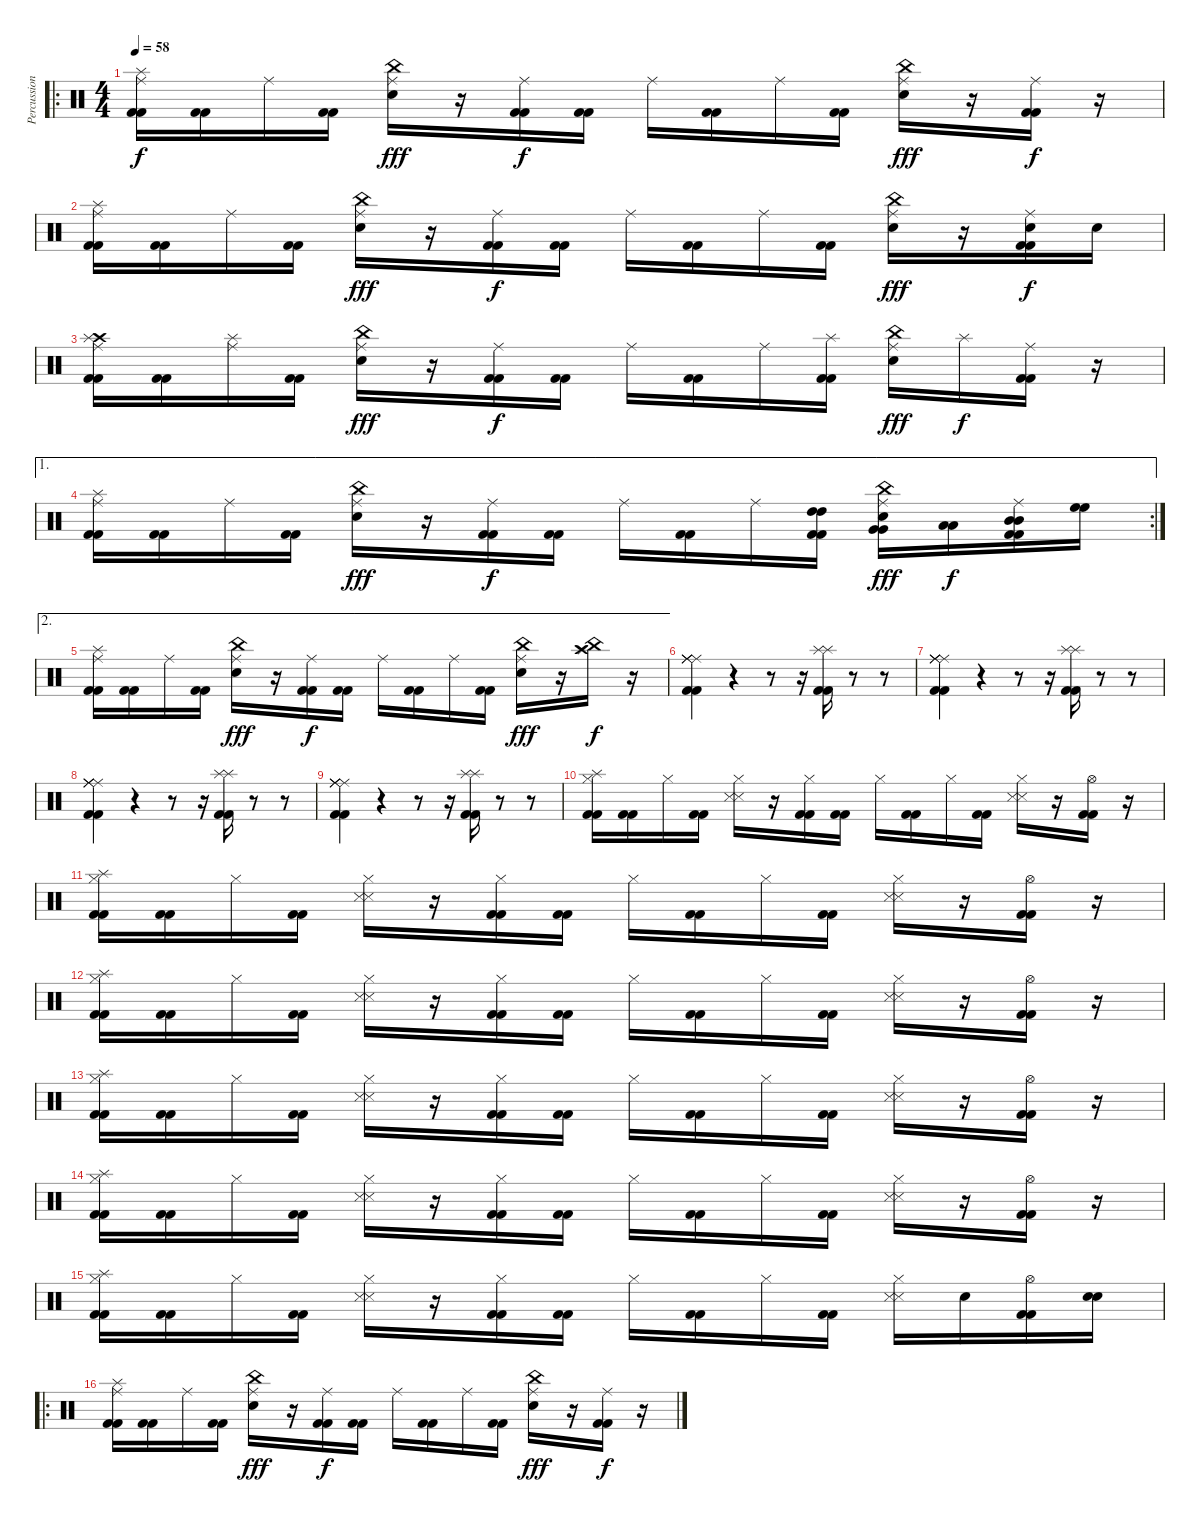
\track ("Percussion" "Percussion") {instrument percussion}
\staff {score}
\articulation defaults
\ro
\ts (4 4)
\tempo 58
\clef neutral
\ks c
("Ride (middle)" "Splash (hit)" "Kick (hit) 2" "Kick (hit) 2").16{dy f} ("Kick (hit) 2" "Kick (hit) 2").16 "Ride (middle)".16 ("Kick (hit) 2" "Kick (hit) 2").16 ("Ride (middle)" "China (hit)" "Snare (hit) 2").16{dy fff} r.16 ("Ride (middle)" "Kick (hit) 2" "Kick (hit) 2").16{dy f} ("Kick (hit) 2" "Kick (hit) 2").16 "Ride (middle)".16 ("Kick (hit) 2" "Kick (hit) 2").16 "Ride (middle)".16 ("Kick (hit) 2" "Kick (hit) 2").16 ("Ride (middle)" "China (hit)" "Snare (hit) 2").16{dy fff} r.16 ("Ride (middle)" "Kick (hit) 2" "Kick (hit) 2").16{dy f} r.16 |
("Ride (middle)" "Splash (hit)" "Kick (hit) 2" "Kick (hit) 2").16 ("Kick (hit) 2" "Kick (hit) 2").16 "Ride (middle)".16 ("Kick (hit) 2" "Kick (hit) 2").16 ("Ride (middle)" "China (hit)" "Snare (hit) 2").16{dy fff} r.16 ("Ride (middle)" "Kick (hit) 2" "Kick (hit) 2").16{dy f} ("Kick (hit) 2" "Kick (hit) 2").16 "Ride (middle)".16 ("Kick (hit) 2" "Kick (hit) 2").16 "Ride (middle)".16 ("Kick (hit) 2" "Kick (hit) 2").16 ("Ride (middle)" "China (hit)" "Snare (hit) 2").16{dy fff} r.16 ("Ride (middle)" "Snare (hit) 2" "Kick (hit) 2" "Kick (hit) 2").16{dy f} "Snare (hit) 2".16 |
("Ride (middle)" "Crash high (hit)" "Splash (hit)" "Kick (hit) 2" "Kick (hit) 2").16 ("Kick (hit) 2" "Kick (hit) 2").16 ("Ride (middle)" "Splash (hit)").16 ("Kick (hit) 2" "Kick (hit) 2").16 ("Ride (middle)" "China (hit)" "Snare (hit) 2").16{dy fff} r.16 ("Ride (middle)" "Kick (hit) 2" "Kick (hit) 2").16{dy f} ("Kick (hit) 2" "Kick (hit) 2").16 "Ride (middle)".16 ("Kick (hit) 2" "Kick (hit) 2").16 "Ride (middle)".16 ("Splash (hit)" "Kick (hit) 2" "Kick (hit) 2").16 ("Ride (middle)" "China (hit)" "Snare (hit) 2").16{dy fff} "Splash (hit)".16{dy f} ("Ride (middle)" "Kick (hit) 2" "Kick (hit) 2").16 r.16 |
\ae 1
\rc 2
("Ride (middle)" "Splash (hit)" "Kick (hit) 2" "Kick (hit) 2").16 ("Kick (hit) 2" "Kick (hit) 2").16 "Ride (middle)".16 ("Kick (hit) 2" "Kick (hit) 2").16 ("Ride (middle)" "China (hit)" "Snare (hit) 2").16{dy fff} r.16 ("Ride (middle)" "Kick (hit) 2" "Kick (hit) 2").16{dy f} ("Kick (hit) 2" "Kick (hit) 2").16 "Ride (middle)".16 ("Kick (hit) 2" "Kick (hit) 2").16 "Ride (middle)".16 ("High Tom (hit)" "High Tom (hit)" "Kick (hit) 2" "Kick (hit) 2").16 ("Ride (middle)" "Very Low Tom (hit)" "Very Low Tom (hit)" "China (hit)" "Snare (hit) 2").16{dy fff} ("Low Tom (hit)" "Low Tom (hit)").16{dy f} ("Ride (middle)" "Mid Tom (hit)" "Mid Tom (hit)" "Kick (hit) 2" "Kick (hit) 2").16 ("High Floor Tom (hit)" "High Floor Tom (hit)").16 |
\ae 2
("Ride (middle)" "Splash (hit)" "Kick (hit) 2" "Kick (hit) 2").16 ("Kick (hit) 2" "Kick (hit) 2").16 "Ride (middle)".16 ("Kick (hit) 2" "Kick (hit) 2").16 ("Ride (middle)" "China (hit)" "Snare (hit) 2").16{dy fff} r.16 ("Ride (middle)" "Kick (hit) 2" "Kick (hit) 2").16{dy f} ("Kick (hit) 2" "Kick (hit) 2").16 "Ride (middle)".16 ("Kick (hit) 2" "Kick (hit) 2").16 "Ride (middle)".16 ("Kick (hit) 2" "Kick (hit) 2").16 ("Ride (middle)" "China (hit)" "Snare (hit) 2").16{dy fff} r.16 ("China (hit)" "Splash (hit)" "Crash high (hit)").16{dy f} r.16 |
("Ride (middle)" "Ride (middle)" "Ride (middle)" "Ride (middle)" "Kick (hit) 2" "Kick (hit) 2").4 r.4 r.8 r.16 ("Splash (hit)" "Splash (hit)" "Kick (hit) 2" "Kick (hit) 2").16 r.8 r.8 |
("Ride (middle)" "Ride (middle)" "Ride (middle)" "Ride (middle)" "Kick (hit) 2" "Kick (hit) 2").4 r.4 r.8 r.16 ("Splash (hit)" "Splash (hit)" "Kick (hit) 2" "Kick (hit) 2").16 r.8 r.8 |
("Ride (middle)" "Ride (middle)" "Ride (middle)" "Ride (middle)" "Kick (hit) 2" "Kick (hit) 2").4 r.4 r.8 r.16 ("Splash (hit)" "Splash (hit)" "Kick (hit) 2" "Kick (hit) 2").16 r.8 r.8 |
("Ride (middle)" "Ride (middle)" "Ride (middle)" "Ride (middle)" "Kick (hit) 2" "Kick (hit) 2").4 r.4 r.8 r.16 ("Splash (hit)" "Splash (hit)" "Kick (hit) 2" "Kick (hit) 2").16 r.8 r.8 |
("Hi-Hat (closed)" "Splash (hit)" "Kick (hit) 2" "Kick (hit) 2").16 ("Kick (hit) 2" "Kick (hit) 2").16 "Hi-Hat (closed)".16 ("Kick (hit) 2" "Kick (hit) 2").16 ("Hi-Hat (closed)" "Snare (side stick) 3" "Snare (side stick) 3").16 r.16 ("Hi-Hat (closed)" "Kick (hit) 2" "Kick (hit) 2").16 ("Kick (hit) 2" "Kick (hit) 2").16 "Hi-Hat (closed)".16 ("Kick (hit) 2" "Kick (hit) 2").16 "Hi-Hat (closed)".16 ("Kick (hit) 2" "Kick (hit) 2").16 ("Hi-Hat (closed)" "Snare (side stick) 3" "Snare (side stick) 3").16 r.16 ("Hi-Hat (open)" "Kick (hit) 2" "Kick (hit) 2").16 r.16 |
("Hi-Hat (closed)" "Splash (hit)" "Kick (hit) 2" "Kick (hit) 2").16 ("Kick (hit) 2" "Kick (hit) 2").16 "Hi-Hat (closed)".16 ("Kick (hit) 2" "Kick (hit) 2").16 ("Hi-Hat (closed)" "Snare (side stick) 3" "Snare (side stick) 3").16 r.16 ("Hi-Hat (closed)" "Kick (hit) 2" "Kick (hit) 2").16 ("Kick (hit) 2" "Kick (hit) 2").16 "Hi-Hat (closed)".16 ("Kick (hit) 2" "Kick (hit) 2").16 "Hi-Hat (closed)".16 ("Kick (hit) 2" "Kick (hit) 2").16 ("Hi-Hat (closed)" "Snare (side stick) 3" "Snare (side stick) 3").16 r.16 ("Hi-Hat (open)" "Kick (hit) 2" "Kick (hit) 2").16 r.16 |
("Hi-Hat (closed)" "Splash (hit)" "Kick (hit) 2" "Kick (hit) 2").16 ("Kick (hit) 2" "Kick (hit) 2").16 "Hi-Hat (closed)".16 ("Kick (hit) 2" "Kick (hit) 2").16 ("Hi-Hat (closed)" "Snare (side stick) 3" "Snare (side stick) 3").16 r.16 ("Hi-Hat (closed)" "Kick (hit) 2" "Kick (hit) 2").16 ("Kick (hit) 2" "Kick (hit) 2").16 "Hi-Hat (closed)".16 ("Kick (hit) 2" "Kick (hit) 2").16 "Hi-Hat (closed)".16 ("Kick (hit) 2" "Kick (hit) 2").16 ("Hi-Hat (closed)" "Snare (side stick) 3" "Snare (side stick) 3").16 r.16 ("Hi-Hat (open)" "Kick (hit) 2" "Kick (hit) 2").16 r.16 |
("Hi-Hat (closed)" "Splash (hit)" "Kick (hit) 2" "Kick (hit) 2").16 ("Kick (hit) 2" "Kick (hit) 2").16 "Hi-Hat (closed)".16 ("Kick (hit) 2" "Kick (hit) 2").16 ("Hi-Hat (closed)" "Snare (side stick) 3" "Snare (side stick) 3").16 r.16 ("Hi-Hat (closed)" "Kick (hit) 2" "Kick (hit) 2").16 ("Kick (hit) 2" "Kick (hit) 2").16 "Hi-Hat (closed)".16 ("Kick (hit) 2" "Kick (hit) 2").16 "Hi-Hat (closed)".16 ("Kick (hit) 2" "Kick (hit) 2").16 ("Hi-Hat (closed)" "Snare (side stick) 3" "Snare (side stick) 3").16 r.16 ("Hi-Hat (open)" "Kick (hit) 2" "Kick (hit) 2").16 r.16 |
("Hi-Hat (closed)" "Splash (hit)" "Kick (hit) 2" "Kick (hit) 2").16 ("Kick (hit) 2" "Kick (hit) 2").16 "Hi-Hat (closed)".16 ("Kick (hit) 2" "Kick (hit) 2").16 ("Hi-Hat (closed)" "Snare (side stick) 3" "Snare (side stick) 3").16 r.16 ("Hi-Hat (closed)" "Kick (hit) 2" "Kick (hit) 2").16 ("Kick (hit) 2" "Kick (hit) 2").16 "Hi-Hat (closed)".16 ("Kick (hit) 2" "Kick (hit) 2").16 "Hi-Hat (closed)".16 ("Kick (hit) 2" "Kick (hit) 2").16 ("Hi-Hat (closed)" "Snare (side stick) 3" "Snare (side stick) 3").16 r.16 ("Hi-Hat (open)" "Kick (hit) 2" "Kick (hit) 2").16 r.16 |
("Hi-Hat (closed)" "Splash (hit)" "Kick (hit) 2" "Kick (hit) 2").16 ("Kick (hit) 2" "Kick (hit) 2").16 "Hi-Hat (closed)".16 ("Kick (hit) 2" "Kick (hit) 2").16 ("Hi-Hat (closed)" "Snare (side stick) 3" "Snare (side stick) 3").16 r.16 ("Hi-Hat (closed)" "Kick (hit) 2" "Kick (hit) 2").16 ("Kick (hit) 2" "Kick (hit) 2").16 "Hi-Hat (closed)".16 ("Kick (hit) 2" "Kick (hit) 2").16 "Hi-Hat (closed)".16 ("Kick (hit) 2" "Kick (hit) 2").16 ("Hi-Hat (closed)" "Snare (side stick) 3" "Snare (side stick) 3").16 "Snare (hit) 2".16 ("Hi-Hat (open)" "Kick (hit) 2" "Kick (hit) 2").16 ("Snare (hit) 2" "Snare (hit) 2").16 |
\ro
("Ride (middle)" "Splash (hit)" "Kick (hit) 2" "Kick (hit) 2").16 ("Kick (hit) 2" "Kick (hit) 2").16 "Ride (middle)".16 ("Kick (hit) 2" "Kick (hit) 2").16 ("Ride (middle)" "China (hit)" "Snare (hit) 2").16{dy fff} r.16 ("Ride (middle)" "Kick (hit) 2" "Kick (hit) 2").16{dy f} ("Kick (hit) 2" "Kick (hit) 2").16 "Ride (middle)".16 ("Kick (hit) 2" "Kick (hit) 2").16 "Ride (middle)".16 ("Kick (hit) 2" "Kick (hit) 2").16 ("Ride (middle)" "China (hit)" "Snare (hit) 2").16{dy fff} r.16 ("Ride (middle)" "Kick (hit) 2" "Kick (hit) 2").16{dy f} r.16
